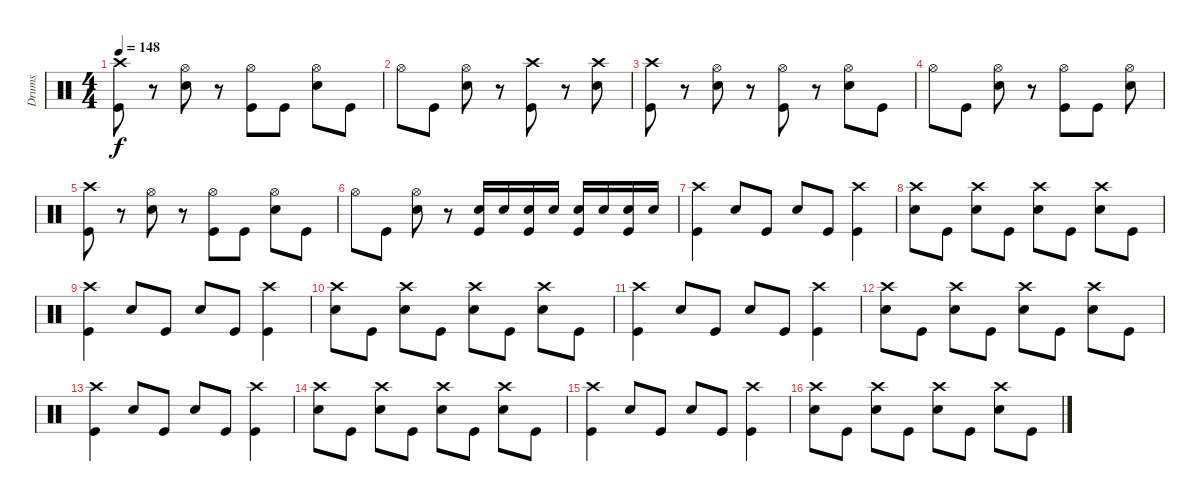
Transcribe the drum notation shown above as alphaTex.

\track ("Drums" "Drums") {instrument percussion}
\staff {score}
\articulation defaults
\ts (4 4)
\tempo 148
\clef neutral
\ks c
("Crash high (hit)" "Kick (hit)").8{dy f} r.8 ("Hi-Hat (open)" "Electric Snare (hit)").8 r.8 ("Hi-Hat (open)" "Kick (hit)").8 "Kick (hit)".8 ("Hi-Hat (open)" "Electric Snare (hit)").8 "Kick (hit)".8 |
"Hi-Hat (open)".8 "Kick (hit)".8 ("Hi-Hat (open)" "Electric Snare (hit)").8 r.8 ("Crash high (hit)" "Kick (hit)").8 r.8 ("Crash high (hit)" "Electric Snare (hit)").8 |
("Crash high (hit)" "Kick (hit)").8 r.8 ("Hi-Hat (open)" "Electric Snare (hit)").8 r.8 ("Hi-Hat (open)" "Kick (hit)").8 r.8 ("Hi-Hat (open)" "Electric Snare (hit)").8 "Kick (hit)".8 |
"Hi-Hat (open)".8 "Kick (hit)".8 ("Hi-Hat (open)" "Electric Snare (hit)").8 r.8 ("Hi-Hat (open)" "Kick (hit)").8 "Kick (hit)".8 ("Hi-Hat (open)" "Electric Snare (hit)").8 |
("Crash high (hit)" "Kick (hit)").8 r.8 ("Hi-Hat (open)" "Electric Snare (hit)").8 r.8 ("Hi-Hat (open)" "Kick (hit)").8 "Kick (hit)".8 ("Hi-Hat (open)" "Electric Snare (hit)").8 "Kick (hit)".8 |
"Hi-Hat (open)".8 "Kick (hit)".8 ("Hi-Hat (open)" "Electric Snare (hit)").8 r.8 ("Electric Snare (hit)" "Kick (hit)").16 "Electric Snare (hit)".16 ("Electric Snare (hit)" "Kick (hit)").16 "Electric Snare (hit)".16 ("Electric Snare (hit)" "Kick (hit)").16 "Electric Snare (hit)".16 ("Electric Snare (hit)" "Kick (hit)").16 "Electric Snare (hit)".16 |
("Crash high (hit)" "Kick (hit)").4 "Electric Snare (hit)".8 "Kick (hit)".8 "Electric Snare (hit)".8 "Kick (hit)".8 ("Crash high (hit)" "Kick (hit)").4 |
("Crash high (hit)" "Electric Snare (hit)").8 "Kick (hit)".8 ("Crash high (hit)" "Electric Snare (hit)").8 "Kick (hit)".8 ("Crash high (hit)" "Electric Snare (hit)").8 "Kick (hit)".8 ("Crash high (hit)" "Electric Snare (hit)").8 "Kick (hit)".8 |
("Crash high (hit)" "Kick (hit)").4 "Electric Snare (hit)".8 "Kick (hit)".8 "Electric Snare (hit)".8 "Kick (hit)".8 ("Crash high (hit)" "Kick (hit)").4 |
("Crash high (hit)" "Electric Snare (hit)").8 "Kick (hit)".8 ("Crash high (hit)" "Electric Snare (hit)").8 "Kick (hit)".8 ("Crash high (hit)" "Electric Snare (hit)").8 "Kick (hit)".8 ("Crash high (hit)" "Electric Snare (hit)").8 "Kick (hit)".8 |
("Crash high (hit)" "Kick (hit)").4 "Electric Snare (hit)".8 "Kick (hit)".8 "Electric Snare (hit)".8 "Kick (hit)".8 ("Crash high (hit)" "Kick (hit)").4 |
("Crash high (hit)" "Electric Snare (hit)").8 "Kick (hit)".8 ("Crash high (hit)" "Electric Snare (hit)").8 "Kick (hit)".8 ("Crash high (hit)" "Electric Snare (hit)").8 "Kick (hit)".8 ("Crash high (hit)" "Electric Snare (hit)").8 "Kick (hit)".8 |
("Crash high (hit)" "Kick (hit)").4 "Electric Snare (hit)".8 "Kick (hit)".8 "Electric Snare (hit)".8 "Kick (hit)".8 ("Crash high (hit)" "Kick (hit)").4 |
("Crash high (hit)" "Electric Snare (hit)").8 "Kick (hit)".8 ("Crash high (hit)" "Electric Snare (hit)").8 "Kick (hit)".8 ("Crash high (hit)" "Electric Snare (hit)").8 "Kick (hit)".8 ("Crash high (hit)" "Electric Snare (hit)").8 "Kick (hit)".8 |
("Crash high (hit)" "Kick (hit)").4 "Electric Snare (hit)".8 "Kick (hit)".8 "Electric Snare (hit)".8 "Kick (hit)".8 ("Crash high (hit)" "Kick (hit)").4 |
("Crash high (hit)" "Electric Snare (hit)").8 "Kick (hit)".8 ("Crash high (hit)" "Electric Snare (hit)").8 "Kick (hit)".8 ("Crash high (hit)" "Electric Snare (hit)").8 "Kick (hit)".8 ("Crash high (hit)" "Electric Snare (hit)").8 "Kick (hit)".8
